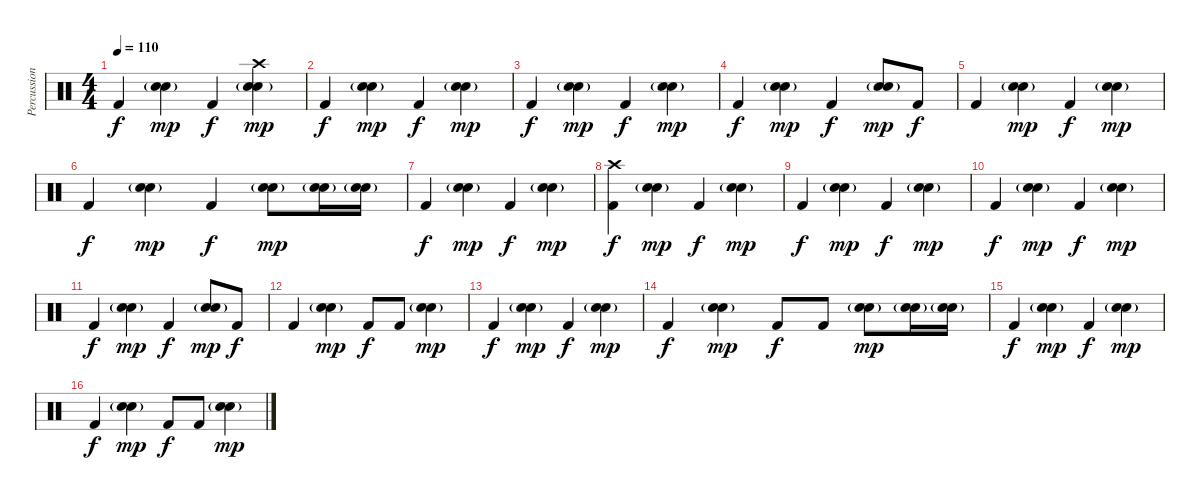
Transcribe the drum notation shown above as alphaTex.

\track ("Percussion" "Percussion") {instrument percussion}
\staff {score}
\articulation defaults
\ts (4 4)
\tempo 110
\clef neutral
\ks c "Kick (hit) 2".4{dy f}
("Electric Snare (hit)" "Snare (hit) 2"{g}).4{dy mp} "Kick (hit) 2".4{dy f} ("Electric Snare (hit)" "Crash high (hit)" "Snare (hit) 2"{g}).4{dy mp} |
"Kick (hit) 2".4{dy f} ("Electric Snare (hit)" "Snare (hit) 2"{g}).4{dy mp} "Kick (hit) 2".4{dy f} ("Electric Snare (hit)" "Snare (hit) 2"{g}).4{dy mp} |
"Kick (hit) 2".4{dy f} ("Electric Snare (hit)" "Snare (hit) 2"{g}).4{dy mp} "Kick (hit) 2".4{dy f} ("Electric Snare (hit)" "Snare (hit) 2"{g}).4{dy mp} |
"Kick (hit) 2".4{dy f} ("Electric Snare (hit)" "Snare (hit) 2"{g}).4{dy mp} "Kick (hit) 2".4{dy f} ("Electric Snare (hit)" "Snare (hit) 2"{g}).8{dy mp} "Kick (hit) 2".8{dy f} |
"Kick (hit) 2".4 ("Electric Snare (hit)" "Snare (hit) 2"{g}).4{dy mp} "Kick (hit) 2".4{dy f} ("Electric Snare (hit)" "Snare (hit) 2"{g}).4{dy mp} |
"Kick (hit) 2".4{dy f} ("Electric Snare (hit)" "Snare (hit) 2"{g}).4{dy mp} "Kick (hit) 2".4{dy f} ("Electric Snare (hit)" "Snare (hit) 2"{g}).8{dy mp} ("Electric Snare (hit)"{g} "Snare (hit) 2"{g}).16 ("Electric Snare (hit)" "Snare (hit) 2"{g}).16 |
"Kick (hit) 2".4{dy f} ("Electric Snare (hit)" "Snare (hit) 2"{g}).4{dy mp} "Kick (hit) 2".4{dy f} ("Electric Snare (hit)" "Snare (hit) 2"{g}).4{dy mp} |
("Crash high (hit)" "Kick (hit) 2").4{dy f} ("Electric Snare (hit)" "Snare (hit) 2"{g}).4{dy mp} "Kick (hit) 2".4{dy f} ("Electric Snare (hit)" "Snare (hit) 2"{g}).4{dy mp} |
"Kick (hit) 2".4{dy f} ("Electric Snare (hit)" "Snare (hit) 2"{g}).4{dy mp} "Kick (hit) 2".4{dy f} ("Electric Snare (hit)" "Snare (hit) 2"{g}).4{dy mp} |
"Kick (hit) 2".4{dy f} ("Electric Snare (hit)" "Snare (hit) 2"{g}).4{dy mp} "Kick (hit) 2".4{dy f} ("Electric Snare (hit)" "Snare (hit) 2"{g}).4{dy mp} |
"Kick (hit) 2".4{dy f} ("Electric Snare (hit)" "Snare (hit) 2"{g}).4{dy mp} "Kick (hit) 2".4{dy f} ("Electric Snare (hit)" "Snare (hit) 2"{g}).8{dy mp} "Kick (hit) 2".8{dy f} |
"Kick (hit) 2".4 ("Electric Snare (hit)" "Snare (hit) 2"{g}).4{dy mp} "Kick (hit) 2".8{dy f} "Kick (hit) 2".8 ("Electric Snare (hit)" "Snare (hit) 2"{g}).4{dy mp} |
"Kick (hit) 2".4{dy f} ("Electric Snare (hit)" "Snare (hit) 2"{g}).4{dy mp} "Kick (hit) 2".4{dy f} ("Electric Snare (hit)" "Snare (hit) 2"{g}).4{dy mp} |
"Kick (hit) 2".4{dy f} ("Electric Snare (hit)" "Snare (hit) 2"{g}).4{dy mp} "Kick (hit) 2".8{dy f} "Kick (hit) 2".8 ("Electric Snare (hit)" "Snare (hit) 2"{g}).8{dy mp} ("Electric Snare (hit)"{g} "Snare (hit) 2"{g}).16 ("Electric Snare (hit)" "Snare (hit) 2"{g}).16 |
"Kick (hit) 2".4{dy f} ("Electric Snare (hit)" "Snare (hit) 2"{g}).4{dy mp} "Kick (hit) 2".4{dy f} ("Electric Snare (hit)" "Snare (hit) 2"{g}).4{dy mp} |
"Kick (hit) 2".4{dy f} ("Electric Snare (hit)" "Snare (hit) 2"{g}).4{dy mp} "Kick (hit) 2".8{dy f} "Kick (hit) 2".8 ("Electric Snare (hit)" "Snare (hit) 2"{g}).4{dy mp}
